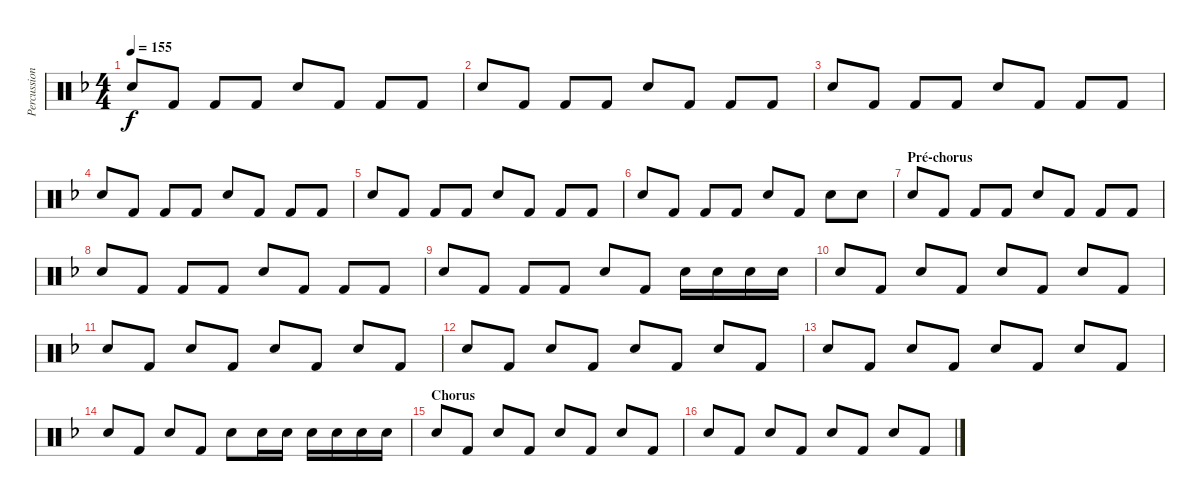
\track ("Percussions" "Percussion") {instrument percussion}
\staff {score}
\articulation defaults
\ts (4 4)
\tempo 155
\clef neutral
\ks f "Snare (hit) 2".8{dy f} "Kick (hit) 2".8 "Kick (hit) 2".8 "Kick (hit) 2".8 "Snare (hit) 2".8 "Kick (hit) 2".8 "Kick (hit) 2".8 "Kick (hit) 2".8
|
"Snare (hit) 2".8 "Kick (hit) 2".8 "Kick (hit) 2".8 "Kick (hit) 2".8 "Snare (hit) 2".8 "Kick (hit) 2".8 "Kick (hit) 2".8 "Kick (hit) 2".8 |
"Snare (hit) 2".8 "Kick (hit) 2".8 "Kick (hit) 2".8 "Kick (hit) 2".8 "Snare (hit) 2".8 "Kick (hit) 2".8 "Kick (hit) 2".8 "Kick (hit) 2".8 |
"Snare (hit) 2".8 "Kick (hit) 2".8 "Kick (hit) 2".8 "Kick (hit) 2".8 "Snare (hit) 2".8 "Kick (hit) 2".8 "Kick (hit) 2".8 "Kick (hit) 2".8 |
"Snare (hit) 2".8 "Kick (hit) 2".8 "Kick (hit) 2".8 "Kick (hit) 2".8 "Snare (hit) 2".8 "Kick (hit) 2".8 "Kick (hit) 2".8 "Kick (hit) 2".8 |
"Snare (hit) 2".8 "Kick (hit) 2".8 "Kick (hit) 2".8 "Kick (hit) 2".8 "Snare (hit) 2".8 "Kick (hit) 2".8 "Snare (hit) 2".8 "Snare (hit) 2".8 |
\section ("" "Pré-chorus")
"Snare (hit) 2".8 "Kick (hit) 2".8 "Kick (hit) 2".8 "Kick (hit) 2".8 "Snare (hit) 2".8 "Kick (hit) 2".8 "Kick (hit) 2".8 "Kick (hit) 2".8 |
"Snare (hit) 2".8 "Kick (hit) 2".8 "Kick (hit) 2".8 "Kick (hit) 2".8 "Snare (hit) 2".8 "Kick (hit) 2".8 "Kick (hit) 2".8 "Kick (hit) 2".8 |
"Snare (hit) 2".8 "Kick (hit) 2".8 "Kick (hit) 2".8 "Kick (hit) 2".8 "Snare (hit) 2".8 "Kick (hit) 2".8 "Snare (hit) 2".16 "Snare (hit) 2".16 "Snare (hit) 2".16 "Snare (hit) 2".16 |
"Snare (hit) 2".8 "Kick (hit) 2".8 "Snare (hit) 2".8 "Kick (hit) 2".8 "Snare (hit) 2".8 "Kick (hit) 2".8 "Snare (hit) 2".8 "Kick (hit) 2".8 |
"Snare (hit) 2".8 "Kick (hit) 2".8 "Snare (hit) 2".8 "Kick (hit) 2".8 "Snare (hit) 2".8 "Kick (hit) 2".8 "Snare (hit) 2".8 "Kick (hit) 2".8 |
"Snare (hit) 2".8 "Kick (hit) 2".8 "Snare (hit) 2".8 "Kick (hit) 2".8 "Snare (hit) 2".8 "Kick (hit) 2".8 "Snare (hit) 2".8 "Kick (hit) 2".8 |
"Snare (hit) 2".8 "Kick (hit) 2".8 "Snare (hit) 2".8 "Kick (hit) 2".8 "Snare (hit) 2".8 "Kick (hit) 2".8 "Snare (hit) 2".8 "Kick (hit) 2".8 |
"Snare (hit) 2".8 "Kick (hit) 2".8 "Snare (hit) 2".8 "Kick (hit) 2".8 "Snare (hit) 2".8 "Snare (hit) 2".16 "Snare (hit) 2".16 "Snare (hit) 2".16 "Snare (hit) 2".16 "Snare (hit) 2".16 "Snare (hit) 2".16 |
\section ("" "Chorus")
"Snare (hit) 2".8 "Kick (hit) 2".8 "Snare (hit) 2".8 "Kick (hit) 2".8 "Snare (hit) 2".8 "Kick (hit) 2".8 "Snare (hit) 2".8 "Kick (hit) 2".8 |
"Snare (hit) 2".8 "Kick (hit) 2".8 "Snare (hit) 2".8 "Kick (hit) 2".8 "Snare (hit) 2".8 "Kick (hit) 2".8 "Snare (hit) 2".8 "Kick (hit) 2".8
